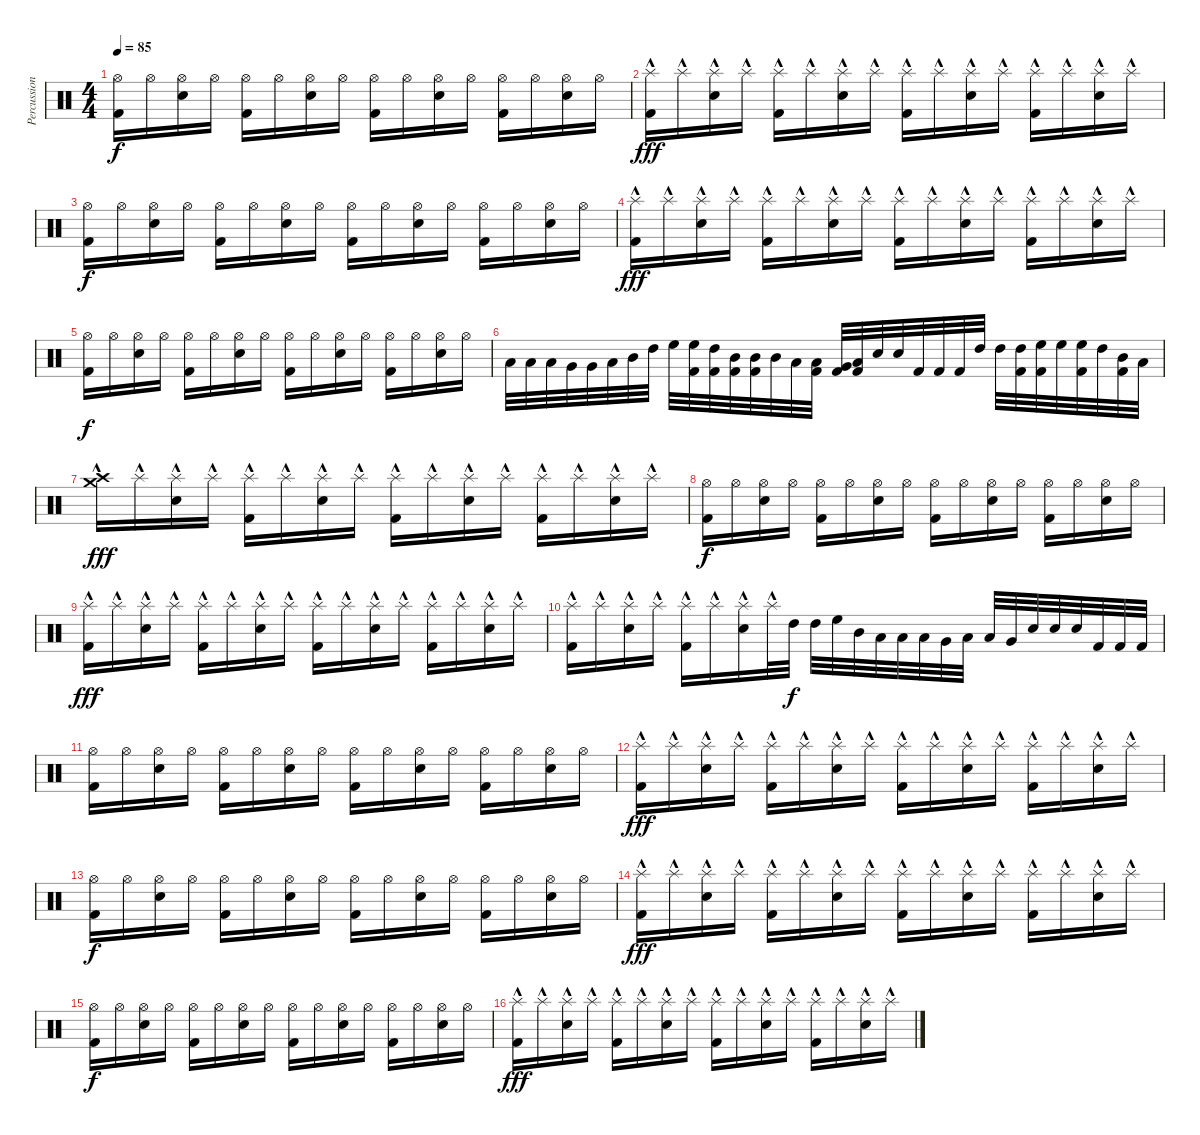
\track ("Percussion" "Percussion") {instrument percussion}
\staff {score}
\articulation defaults
\ts (4 4)
\tempo 85
\clef neutral
\ks c
("Hi-Hat (open)" "Kick (hit) 2").16{dy f} "Hi-Hat (open)".16 ("Hi-Hat (open)" "Electric Snare (hit)").16 "Hi-Hat (open)".16 ("Hi-Hat (open)" "Kick (hit) 2").16 "Hi-Hat (open)".16 ("Hi-Hat (open)" "Electric Snare (hit)").16 "Hi-Hat (open)".16 ("Hi-Hat (open)" "Kick (hit) 2").16 "Hi-Hat (open)".16 ("Hi-Hat (open)" "Electric Snare (hit)").16 "Hi-Hat (open)".16 ("Hi-Hat (open)" "Kick (hit) 2").16 "Hi-Hat (open)".16 ("Hi-Hat (open)" "Electric Snare (hit)").16 "Hi-Hat (open)".16 |
("Splash (hit)"{hac} "Kick (hit) 2").16{dy fff} "Splash (hit)"{hac}.16 ("Splash (hit)"{hac} "Electric Snare (hit)").16 "Splash (hit)"{hac}.16 ("Splash (hit)"{hac} "Kick (hit) 2").16 "Splash (hit)"{hac}.16 ("Splash (hit)"{hac} "Electric Snare (hit)").16 "Splash (hit)"{hac}.16 ("Splash (hit)"{hac} "Kick (hit) 2").16 "Splash (hit)"{hac}.16 ("Splash (hit)"{hac} "Electric Snare (hit)").16 "Splash (hit)"{hac}.16 ("Splash (hit)"{hac} "Kick (hit) 2").16 "Splash (hit)"{hac}.16 ("Splash (hit)"{hac} "Electric Snare (hit)").16 "Splash (hit)"{hac}.16 |
("Hi-Hat (open)" "Kick (hit) 2").16{dy f} "Hi-Hat (open)".16 ("Hi-Hat (open)" "Electric Snare (hit)").16 "Hi-Hat (open)".16 ("Hi-Hat (open)" "Kick (hit) 2").16 "Hi-Hat (open)".16 ("Hi-Hat (open)" "Electric Snare (hit)").16 "Hi-Hat (open)".16 ("Hi-Hat (open)" "Kick (hit) 2").16 "Hi-Hat (open)".16 ("Hi-Hat (open)" "Electric Snare (hit)").16 "Hi-Hat (open)".16 ("Hi-Hat (open)" "Kick (hit) 2").16 "Hi-Hat (open)".16 ("Hi-Hat (open)" "Electric Snare (hit)").16 "Hi-Hat (open)".16 |
("Splash (hit)"{hac} "Kick (hit) 2").16{dy fff} "Splash (hit)"{hac}.16 ("Splash (hit)"{hac} "Electric Snare (hit)").16 "Splash (hit)"{hac}.16 ("Splash (hit)"{hac} "Kick (hit) 2").16 "Splash (hit)"{hac}.16 ("Splash (hit)"{hac} "Electric Snare (hit)").16 "Splash (hit)"{hac}.16 ("Splash (hit)"{hac} "Kick (hit) 2").16 "Splash (hit)"{hac}.16 ("Splash (hit)"{hac} "Electric Snare (hit)").16 "Splash (hit)"{hac}.16 ("Splash (hit)"{hac} "Kick (hit) 2").16 "Splash (hit)"{hac}.16 ("Splash (hit)"{hac} "Electric Snare (hit)").16 "Splash (hit)"{hac}.16 |
("Hi-Hat (open)" "Kick (hit) 2").16{dy f} "Hi-Hat (open)".16 ("Hi-Hat (open)" "Electric Snare (hit)").16 "Hi-Hat (open)".16 ("Hi-Hat (open)" "Kick (hit) 2").16 "Hi-Hat (open)".16 ("Hi-Hat (open)" "Electric Snare (hit)").16 "Hi-Hat (open)".16 ("Hi-Hat (open)" "Kick (hit) 2").16 "Hi-Hat (open)".16 ("Hi-Hat (open)" "Electric Snare (hit)").16 "Hi-Hat (open)".16 ("Hi-Hat (open)" "Kick (hit) 2").16 "Hi-Hat (open)".16 ("Hi-Hat (open)" "Electric Snare (hit)").16 "Hi-Hat (open)".16 |
"Low Floor Tom (hit)".32 "Low Floor Tom (hit)".32 "Low Floor Tom (hit)".32 "Very Low Tom (hit)".32 "Very Low Tom (hit)".32 "Low Tom (hit)".32 "Mid Tom (hit)".32 "High Tom (hit)".32 "High Floor Tom (hit)".32 ("Kick (hit) 2" "High Floor Tom (hit)").32 ("Kick (hit) 2" "High Tom (hit)").32 ("Kick (hit) 2" "Mid Tom (hit)").32 ("Kick (hit) 2" "Mid Tom (hit)").32 "Mid Tom (hit)".32 "Low Tom (hit)".32 ("Kick (hit) 2" "Low Tom (hit)").32 ("Kick (hit) 2" "Very Low Tom (hit)").32 ("Kick (hit) 2" "Low Floor Tom (hit)").32 "Snare (hit) 2".32 "Snare (hit) 2".32 "Kick (hit) 2".32 "Kick (hit) 2".32 "Kick (hit) 2".32 "High Tom (hit)".32 "High Tom (hit)".32 ("Kick (hit) 2" "High Tom (hit)").32 ("Kick (hit) 2" "High Floor Tom (hit)").32 "High Floor Tom (hit)".32 ("Kick (hit) 2" "High Floor Tom (hit)").32 "High Tom (hit)".32 ("Kick (hit) 2" "Mid Tom (hit)").32 "Low Tom (hit)".32 |
("Crash medium (hit)"{hac} "Crash high (hit)").16{dy fff} "Splash (hit)"{hac}.16 ("Splash (hit)"{hac} "Electric Snare (hit)").16 "Splash (hit)"{hac}.16 ("Splash (hit)"{hac} "Kick (hit) 2").16 "Splash (hit)"{hac}.16 ("Splash (hit)"{hac} "Electric Snare (hit)").16 "Splash (hit)"{hac}.16 ("Splash (hit)"{hac} "Kick (hit) 2").16 "Splash (hit)"{hac}.16 ("Splash (hit)"{hac} "Electric Snare (hit)").16 "Splash (hit)"{hac}.16 ("Splash (hit)"{hac} "Kick (hit) 2").16 "Splash (hit)"{hac}.16 ("Splash (hit)"{hac} "Electric Snare (hit)").16 "Splash (hit)"{hac}.16 |
("Hi-Hat (open)" "Kick (hit) 2").16{dy f} "Hi-Hat (open)".16 ("Hi-Hat (open)" "Electric Snare (hit)").16 "Hi-Hat (open)".16 ("Hi-Hat (open)" "Kick (hit) 2").16 "Hi-Hat (open)".16 ("Hi-Hat (open)" "Electric Snare (hit)").16 "Hi-Hat (open)".16 ("Hi-Hat (open)" "Kick (hit) 2").16 "Hi-Hat (open)".16 ("Hi-Hat (open)" "Electric Snare (hit)").16 "Hi-Hat (open)".16 ("Hi-Hat (open)" "Kick (hit) 2").16 "Hi-Hat (open)".16 ("Hi-Hat (open)" "Electric Snare (hit)").16 "Hi-Hat (open)".16 |
("Splash (hit)"{hac} "Kick (hit) 2").16{dy fff} "Splash (hit)"{hac}.16 ("Splash (hit)"{hac} "Electric Snare (hit)").16 "Splash (hit)"{hac}.16 ("Splash (hit)"{hac} "Kick (hit) 2").16 "Splash (hit)"{hac}.16 ("Splash (hit)"{hac} "Electric Snare (hit)").16 "Splash (hit)"{hac}.16 ("Splash (hit)"{hac} "Kick (hit) 2").16 "Splash (hit)"{hac}.16 ("Splash (hit)"{hac} "Electric Snare (hit)").16 "Splash (hit)"{hac}.16 ("Splash (hit)"{hac} "Kick (hit) 2").16 "Splash (hit)"{hac}.16 ("Splash (hit)"{hac} "Electric Snare (hit)").16 "Splash (hit)"{hac}.16 |
("Splash (hit)"{hac} "Kick (hit) 2").16 "Splash (hit)"{hac}.16 ("Splash (hit)"{hac} "Electric Snare (hit)").16 "Splash (hit)"{hac}.16 ("Splash (hit)"{hac} "Kick (hit) 2").16 "Splash (hit)"{hac}.16 ("Splash (hit)"{hac} "Electric Snare (hit)").16 "Splash (hit)"{hac}.32 "High Tom (hit)".32{dy f} "High Tom (hit)".32 "High Floor Tom (hit)".32 "Mid Tom (hit)".32 "Low Tom (hit)".32 "Low Tom (hit)".32 "Low Tom (hit)".32 "Very Low Tom (hit)".32 "Low Floor Tom (hit)".32 "Low Floor Tom (hit)".32 "Very Low Tom (hit)".32 "Electric Snare (hit)".32 "Electric Snare (hit)".32 "Electric Snare (hit)".32 "Kick (hit) 2".32 "Kick (hit) 2".32 "Kick (hit) 2".32 |
("Hi-Hat (open)" "Kick (hit) 2").16 "Hi-Hat (open)".16 ("Hi-Hat (open)" "Electric Snare (hit)").16 "Hi-Hat (open)".16 ("Hi-Hat (open)" "Kick (hit) 2").16 "Hi-Hat (open)".16 ("Hi-Hat (open)" "Electric Snare (hit)").16 "Hi-Hat (open)".16 ("Hi-Hat (open)" "Kick (hit) 2").16 "Hi-Hat (open)".16 ("Hi-Hat (open)" "Electric Snare (hit)").16 "Hi-Hat (open)".16 ("Hi-Hat (open)" "Kick (hit) 2").16 "Hi-Hat (open)".16 ("Hi-Hat (open)" "Electric Snare (hit)").16 "Hi-Hat (open)".16 |
("Splash (hit)"{hac} "Kick (hit) 2").16{dy fff} "Splash (hit)"{hac}.16 ("Splash (hit)"{hac} "Electric Snare (hit)").16 "Splash (hit)"{hac}.16 ("Splash (hit)"{hac} "Kick (hit) 2").16 "Splash (hit)"{hac}.16 ("Splash (hit)"{hac} "Electric Snare (hit)").16 "Splash (hit)"{hac}.16 ("Splash (hit)"{hac} "Kick (hit) 2").16 "Splash (hit)"{hac}.16 ("Splash (hit)"{hac} "Electric Snare (hit)").16 "Splash (hit)"{hac}.16 ("Splash (hit)"{hac} "Kick (hit) 2").16 "Splash (hit)"{hac}.16 ("Splash (hit)"{hac} "Electric Snare (hit)").16 "Splash (hit)"{hac}.16 |
("Hi-Hat (open)" "Kick (hit) 2").16{dy f} "Hi-Hat (open)".16 ("Hi-Hat (open)" "Electric Snare (hit)").16 "Hi-Hat (open)".16 ("Hi-Hat (open)" "Kick (hit) 2").16 "Hi-Hat (open)".16 ("Hi-Hat (open)" "Electric Snare (hit)").16 "Hi-Hat (open)".16 ("Hi-Hat (open)" "Kick (hit) 2").16 "Hi-Hat (open)".16 ("Hi-Hat (open)" "Electric Snare (hit)").16 "Hi-Hat (open)".16 ("Hi-Hat (open)" "Kick (hit) 2").16 "Hi-Hat (open)".16 ("Hi-Hat (open)" "Electric Snare (hit)").16 "Hi-Hat (open)".16 |
("Splash (hit)"{hac} "Kick (hit) 2").16{dy fff} "Splash (hit)"{hac}.16 ("Splash (hit)"{hac} "Electric Snare (hit)").16 "Splash (hit)"{hac}.16 ("Splash (hit)"{hac} "Kick (hit) 2").16 "Splash (hit)"{hac}.16 ("Splash (hit)"{hac} "Electric Snare (hit)").16 "Splash (hit)"{hac}.16 ("Splash (hit)"{hac} "Kick (hit) 2").16 "Splash (hit)"{hac}.16 ("Splash (hit)"{hac} "Electric Snare (hit)").16 "Splash (hit)"{hac}.16 ("Splash (hit)"{hac} "Kick (hit) 2").16 "Splash (hit)"{hac}.16 ("Splash (hit)"{hac} "Electric Snare (hit)").16 "Splash (hit)"{hac}.16 |
("Hi-Hat (open)" "Kick (hit) 2").16{dy f} "Hi-Hat (open)".16 ("Hi-Hat (open)" "Electric Snare (hit)").16 "Hi-Hat (open)".16 ("Hi-Hat (open)" "Kick (hit) 2").16 "Hi-Hat (open)".16 ("Hi-Hat (open)" "Electric Snare (hit)").16 "Hi-Hat (open)".16 ("Hi-Hat (open)" "Kick (hit) 2").16 "Hi-Hat (open)".16 ("Hi-Hat (open)" "Electric Snare (hit)").16 "Hi-Hat (open)".16 ("Hi-Hat (open)" "Kick (hit) 2").16 "Hi-Hat (open)".16 ("Hi-Hat (open)" "Electric Snare (hit)").16 "Hi-Hat (open)".16 |
("Splash (hit)"{hac} "Kick (hit) 2").16{dy fff} "Splash (hit)"{hac}.16 ("Splash (hit)"{hac} "Electric Snare (hit)").16 "Splash (hit)"{hac}.16 ("Splash (hit)"{hac} "Kick (hit) 2").16 "Splash (hit)"{hac}.16 ("Splash (hit)"{hac} "Electric Snare (hit)").16 "Splash (hit)"{hac}.16 ("Splash (hit)"{hac} "Kick (hit) 2").16 "Splash (hit)"{hac}.16 ("Splash (hit)"{hac} "Electric Snare (hit)").16 "Splash (hit)"{hac}.16 ("Splash (hit)"{hac} "Kick (hit) 2").16 "Splash (hit)"{hac}.16 ("Splash (hit)"{hac} "Electric Snare (hit)").16 "Splash (hit)"{hac}.16
